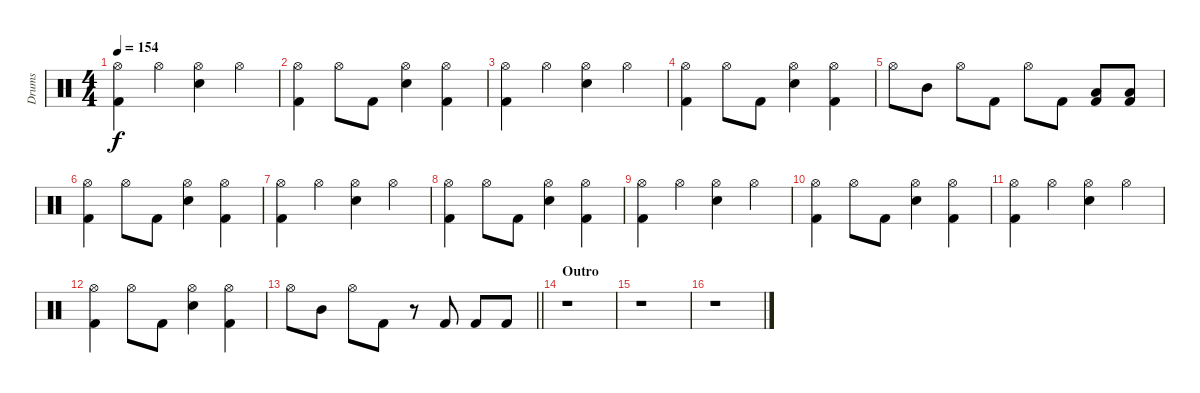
\track ("Drums" "Drums") {instrument percussion}
\staff {score}
\articulation defaults
\ts (4 4)
\tempo 154
\clef neutral
\ks c
("Hi-Hat (open)" "Kick (hit) 2").4{dy f} "Hi-Hat (open)".4 ("Hi-Hat (open)" "Snare (hit) 2").4 "Hi-Hat (open)".4 |
("Hi-Hat (open)" "Kick (hit) 2").4 "Hi-Hat (open)".8 "Kick (hit) 2".8 ("Hi-Hat (open)" "Snare (hit) 2").4 ("Hi-Hat (open)" "Kick (hit) 2").4 |
("Hi-Hat (open)" "Kick (hit) 2").4 "Hi-Hat (open)".4 ("Hi-Hat (open)" "Snare (hit) 2").4 "Hi-Hat (open)".4 |
("Hi-Hat (open)" "Kick (hit) 2").4 "Hi-Hat (open)".8 "Kick (hit) 2".8 ("Hi-Hat (open)" "Snare (hit) 2").4 ("Hi-Hat (open)" "Kick (hit) 2").4 |
"Hi-Hat (open)".8 "Mid Tom (hit)".8 "Hi-Hat (open)".8 "Kick (hit) 2".8 "Hi-Hat (open)".8 "Kick (hit) 2".8 ("Low Floor Tom (hit)" "Kick (hit) 2").8 ("Low Floor Tom (hit)" "Kick (hit) 2").8 |
("Hi-Hat (open)" "Kick (hit) 2").4 "Hi-Hat (open)".8 "Kick (hit) 2".8 ("Hi-Hat (open)" "Snare (hit) 2").4 ("Hi-Hat (open)" "Kick (hit) 2").4 |
("Hi-Hat (open)" "Kick (hit) 2").4 "Hi-Hat (open)".4 ("Hi-Hat (open)" "Snare (hit) 2").4 "Hi-Hat (open)".4 |
("Hi-Hat (open)" "Kick (hit) 2").4 "Hi-Hat (open)".8 "Kick (hit) 2".8 ("Hi-Hat (open)" "Snare (hit) 2").4 ("Hi-Hat (open)" "Kick (hit) 2").4 |
("Hi-Hat (open)" "Kick (hit) 2").4 "Hi-Hat (open)".4 ("Hi-Hat (open)" "Snare (hit) 2").4 "Hi-Hat (open)".4 |
("Hi-Hat (open)" "Kick (hit) 2").4 "Hi-Hat (open)".8 "Kick (hit) 2".8 ("Hi-Hat (open)" "Snare (hit) 2").4 ("Hi-Hat (open)" "Kick (hit) 2").4 |
("Hi-Hat (open)" "Kick (hit) 2").4 "Hi-Hat (open)".4 ("Hi-Hat (open)" "Snare (hit) 2").4 "Hi-Hat (open)".4 |
("Hi-Hat (open)" "Kick (hit) 2").4 "Hi-Hat (open)".8 "Kick (hit) 2".8 ("Hi-Hat (open)" "Snare (hit) 2").4 ("Hi-Hat (open)" "Kick (hit) 2").4 |
\barLineRight lightlight "Hi-Hat (open)".8 "Mid Tom (hit)".8 "Hi-Hat (open)".8 "Kick (hit) 2".8
r.8 "Kick (hit) 2".8 "Kick (hit) 2".8 "Kick (hit) 2".8 |
\section ("" "Outro")
r.1 |
r.1 |
r.1
